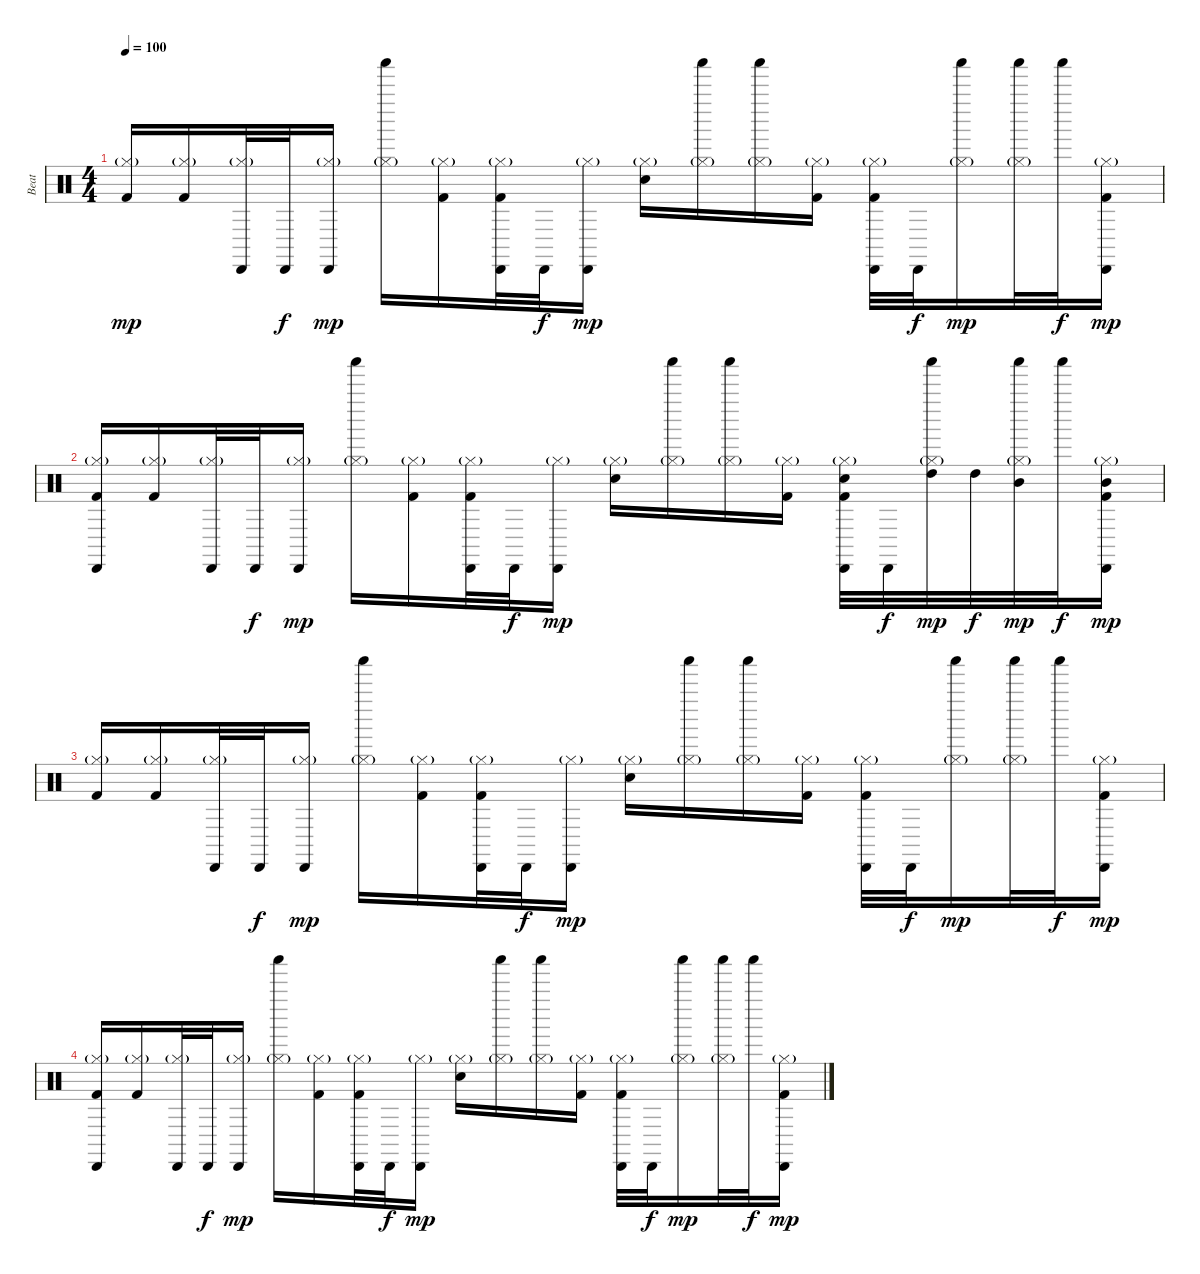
\track ("Beat" "Beat") {instrument percussion}
\staff {score}
\articulation defaults
\ts (4 4)
\tempo 100
\clef neutral
\ks c
("Hi-Hat (closed)"{g} "Kick (hit) 2").16{dy mp} ("Hi-Hat (closed)"{g} "Kick (hit) 2").16 ("Hi-Hat (closed)"{g} "Cabasa (hit)").32 "Cabasa (hit)".32{dy f} ("Hi-Hat (closed)"{g} "Cabasa (hit)").16{dy mp} ("Hi-Hat (closed)"{g} "Shaker (hit)").16 ("Hi-Hat (closed)"{g} "Kick (hit) 2").16 ("Hi-Hat (closed)"{g} "Cabasa (hit)" "Kick (hit) 2").32 "Cabasa (hit)".32{dy f} ("Hi-Hat (closed)"{g} "Cabasa (hit)").16{dy mp} ("Hi-Hat (closed)"{g} "Snare (hit) 2").16 ("Hi-Hat (closed)"{g} "Shaker (hit)").16 ("Hi-Hat (closed)"{g} "Shaker (hit)").16 ("Hi-Hat (closed)"{g} "Kick (hit) 2").16 ("Hi-Hat (closed)"{g} "Cabasa (hit)" "Kick (hit) 2").32 "Cabasa (hit)".32{dy f} ("Hi-Hat (closed)"{g} "Shaker (hit)").16{dy mp} ("Hi-Hat (closed)"{g} "Shaker (hit)").32 "Shaker (hit)".32{dy f} ("Hi-Hat (closed)"{g} "Cabasa (hit)" "Kick (hit) 2").16{dy mp} |
("Hi-Hat (closed)"{g} "Cabasa (hit)" "Kick (hit) 2").16 ("Hi-Hat (closed)"{g} "Kick (hit) 2").16 ("Hi-Hat (closed)"{g} "Cabasa (hit)").32 "Cabasa (hit)".32{dy f} ("Hi-Hat (closed)"{g} "Cabasa (hit)").16{dy mp} ("Hi-Hat (closed)"{g} "Shaker (hit)").16 ("Hi-Hat (closed)"{g} "Kick (hit) 2").16 ("Hi-Hat (closed)"{g} "Cabasa (hit)" "Kick (hit) 2").32 "Cabasa (hit)".32{dy f} ("Hi-Hat (closed)"{g} "Cabasa (hit)").16{dy mp} ("Hi-Hat (closed)"{g} "Snare (hit) 2").16 ("Hi-Hat (closed)"{g} "Shaker (hit)").16 ("Hi-Hat (closed)"{g} "Shaker (hit)").16 ("Hi-Hat (closed)"{g} "Kick (hit) 2").16 ("Hi-Hat (closed)"{g} "Cabasa (hit)" "Snare (hit) 2" "Kick (hit) 2").32 "Cabasa (hit)".32{dy f} ("Hi-Hat (closed)"{g} "Shaker (hit)" "High Tom (hit)").32{dy mp} "High Tom (hit)".32{dy f} ("Hi-Hat (closed)"{g} "Shaker (hit)" "Mid Tom (hit)").32{dy mp} "Shaker (hit)".32{dy f} ("Hi-Hat (closed)"{g} "Cabasa (hit)" "Mid Tom (hit)" "Kick (hit) 2").16{dy mp} |
("Hi-Hat (closed)"{g} "Kick (hit) 2").16 ("Hi-Hat (closed)"{g} "Kick (hit) 2").16 ("Hi-Hat (closed)"{g} "Cabasa (hit)").32 "Cabasa (hit)".32{dy f} ("Hi-Hat (closed)"{g} "Cabasa (hit)").16{dy mp} ("Hi-Hat (closed)"{g} "Shaker (hit)").16 ("Hi-Hat (closed)"{g} "Kick (hit) 2").16 ("Hi-Hat (closed)"{g} "Cabasa (hit)" "Kick (hit) 2").32 "Cabasa (hit)".32{dy f} ("Hi-Hat (closed)"{g} "Cabasa (hit)").16{dy mp} ("Hi-Hat (closed)"{g} "Snare (hit) 2").16 ("Hi-Hat (closed)"{g} "Shaker (hit)").16 ("Hi-Hat (closed)"{g} "Shaker (hit)").16 ("Hi-Hat (closed)"{g} "Kick (hit) 2").16 ("Hi-Hat (closed)"{g} "Cabasa (hit)" "Kick (hit) 2").32 "Cabasa (hit)".32{dy f} ("Hi-Hat (closed)"{g} "Shaker (hit)").16{dy mp} ("Hi-Hat (closed)"{g} "Shaker (hit)").32 "Shaker (hit)".32{dy f} ("Hi-Hat (closed)"{g} "Cabasa (hit)" "Kick (hit) 2").16{dy mp} |
("Hi-Hat (closed)"{g} "Cabasa (hit)" "Kick (hit) 2").16 ("Hi-Hat (closed)"{g} "Kick (hit) 2").16 ("Hi-Hat (closed)"{g} "Cabasa (hit)").32 "Cabasa (hit)".32{dy f} ("Hi-Hat (closed)"{g} "Cabasa (hit)").16{dy mp} ("Hi-Hat (closed)"{g} "Shaker (hit)").16 ("Hi-Hat (closed)"{g} "Kick (hit) 2").16 ("Hi-Hat (closed)"{g} "Cabasa (hit)" "Kick (hit) 2").32 "Cabasa (hit)".32{dy f} ("Hi-Hat (closed)"{g} "Cabasa (hit)").16{dy mp} ("Hi-Hat (closed)"{g} "Snare (hit) 2").16 ("Hi-Hat (closed)"{g} "Shaker (hit)").16 ("Hi-Hat (closed)"{g} "Shaker (hit)").16 ("Hi-Hat (closed)"{g} "Kick (hit) 2").16 ("Hi-Hat (closed)"{g} "Cabasa (hit)" "Kick (hit) 2").32 "Cabasa (hit)".32{dy f} ("Hi-Hat (closed)"{g} "Shaker (hit)").16{dy mp} ("Hi-Hat (closed)"{g} "Shaker (hit)").32 "Shaker (hit)".32{dy f} ("Hi-Hat (closed)"{g} "Cabasa (hit)" "Kick (hit) 2").16{dy mp}
